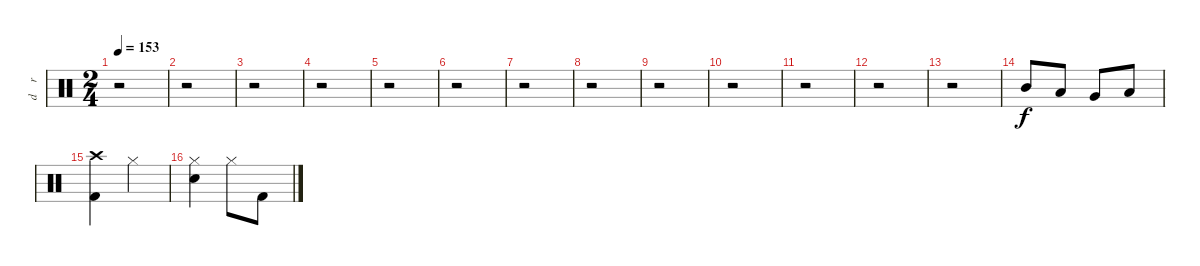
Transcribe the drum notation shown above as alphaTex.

\track ("d    r     u    m    s" "d    r    ") {instrument percussion}
\staff {score}
\articulation defaults
\ts (2 4)
\tempo 153
\clef neutral
\ks c
r.2{dy f} |
r.2 |
r.2 |
r.2 |
r.2 |
r.2 |
r.2 |
r.2 |
r.2 |
r.2 |
r.2 |
r.2 |
r.2 |
"Mid Tom (hit)".8 "Low Tom (hit)".8 "Very Low Tom (hit)".8 "Low Floor Tom (hit)".8 |
("Crash high (hit)" "Kick (hit) 2").4 "Hi-Hat (closed)".4 |
("Hi-Hat (closed)" "Electric Snare (hit)").4 "Hi-Hat (closed)".8 "Kick (hit) 2".8
